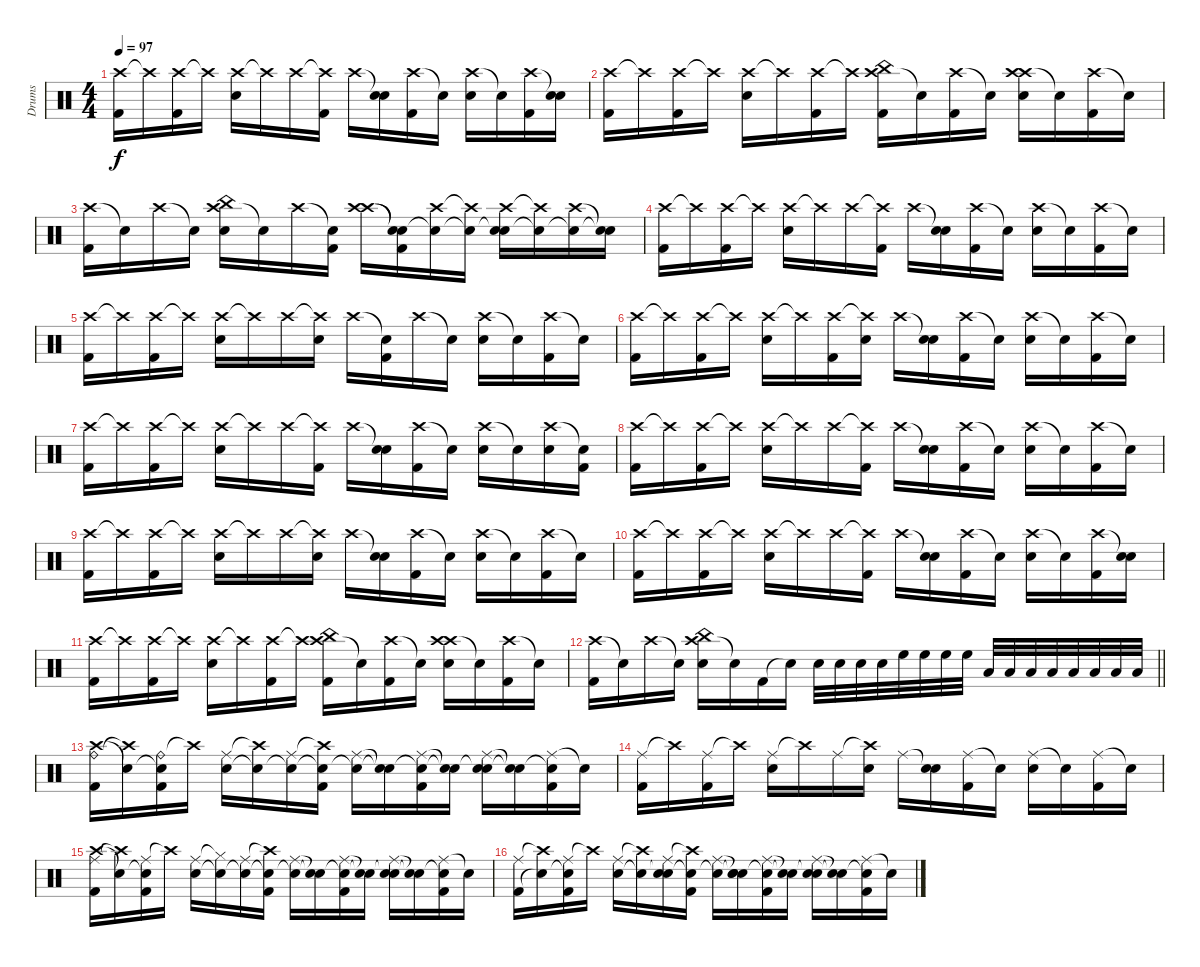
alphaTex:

\track ("Drums" "Drums") {instrument percussion}
\staff {score}
\articulation defaults
\ts (4 4)
\tempo 97
\clef neutral
\ks aminor
("Crash high (hit)" "Kick (hit) 2").16{dy f} "Crash high (hit)"{t}.16 ("Crash high (hit)" "Kick (hit) 2").16 "Crash high (hit)"{t}.16 ("Crash high (hit)" "Snare (hit) 2").16 "Crash high (hit)"{t}.16 "Crash high (hit)".16 ("Crash high (hit)"{t} "Kick (hit) 2").16 "Crash high (hit)".16 ("Snare (hit)"{t} "Snare (hit) 2").16 ("Crash high (hit)" "Kick (hit) 2").16 "Snare (hit)"{t}.16 ("Crash high (hit)" "Snare (hit) 2").16 "Snare (hit)"{t}.16 ("Crash high (hit)" "Kick (hit) 2").16 ("Snare (hit)"{t} "Snare (hit) 2").16 |
("Crash high (hit)" "Kick (hit) 2").16 "Crash high (hit)"{t}.16 ("Crash high (hit)" "Kick (hit) 2").16 "Crash high (hit)"{t}.16 ("Crash high (hit)" "Snare (hit) 2").16 "Crash high (hit)"{t}.16 ("Crash high (hit)" "Kick (hit) 2").16 "Crash high (hit)"{t}.16 ("Crash high (hit)" "China (hit)" "Kick (hit) 2").16 "Snare (hit)"{t}.16 ("Crash high (hit)" "Kick (hit) 2").16 "Snare (hit)"{t}.16 ("Crash high (hit)" "Crash high (hit)" "Snare (hit) 2").16 "Snare (hit)"{t}.16 ("Crash high (hit)" "Kick (hit) 2").16 "Snare (hit)"{t}.16 |
("Crash high (hit)" "Kick (hit) 2").16 "Snare (hit)"{t}.16 "Crash high (hit)".16 "Snare (hit)"{t}.16 ("Crash high (hit)" "China (hit)" "Snare (hit) 2").16 "Snare (hit)"{t}.16 "Crash high (hit)".16 ("Snare (hit)"{t} "Kick (hit) 2").16 ("Crash high (hit)" "Crash high (hit)").16 ("Snare (hit)"{t} "Snare (hit)"{t} "Kick (hit) 2").16 ("Crash high (hit)" "Snare (hit)"{t}).16 ("Crash high (hit)"{t} "Snare (hit)"{t}).16 ("Crash high (hit)" "Snare (hit)"{t} "Snare (hit) 2").16 ("Crash high (hit)"{t} "Snare (hit)"{t}).16 ("Crash high (hit)" "Snare (hit)"{t}).16 ("Snare (hit)"{t} "Snare (hit)"{t}).16 |
("Crash high (hit)" "Kick (hit) 2").16 "Crash high (hit)"{t}.16 ("Crash high (hit)" "Kick (hit) 2").16 "Crash high (hit)"{t}.16 ("Crash high (hit)" "Snare (hit) 2").16 "Crash high (hit)"{t}.16 "Crash high (hit)".16 ("Crash high (hit)"{t} "Kick (hit) 2").16 "Crash high (hit)".16 ("Snare (hit)"{t} "Snare (hit) 2").16 ("Crash high (hit)" "Kick (hit) 2").16 "Snare (hit)"{t}.16 ("Crash high (hit)" "Snare (hit) 2").16 "Snare (hit)"{t}.16 ("Crash high (hit)" "Kick (hit) 2").16 "Snare (hit)"{t}.16 |
("Crash high (hit)" "Kick (hit) 2").16 "Crash high (hit)"{t}.16 ("Crash high (hit)" "Kick (hit) 2").16 "Crash high (hit)"{t}.16 ("Crash high (hit)" "Snare (hit) 2").16 "Crash high (hit)"{t}.16 "Crash high (hit)".16 ("Crash high (hit)"{t} "Snare (hit) 2").16 "Crash high (hit)".16 ("Snare (hit)"{t} "Kick (hit) 2").16 "Crash high (hit)".16 "Snare (hit)"{t}.16 ("Crash high (hit)" "Snare (hit) 2").16 "Snare (hit)"{t}.16 ("Crash high (hit)" "Kick (hit) 2").16 "Snare (hit)"{t}.16 |
("Crash high (hit)" "Kick (hit) 2").16 "Crash high (hit)"{t}.16 ("Crash high (hit)" "Kick (hit) 2").16 "Crash high (hit)"{t}.16 ("Crash high (hit)" "Snare (hit) 2").16 "Crash high (hit)"{t}.16 ("Crash high (hit)" "Kick (hit) 2").16 ("Crash high (hit)"{t} "Snare (hit) 2").16 "Crash high (hit)".16 ("Snare (hit)"{t} "Snare (hit) 2").16 ("Crash high (hit)" "Kick (hit) 2").16 "Snare (hit)"{t}.16 ("Crash high (hit)" "Snare (hit) 2").16 "Snare (hit)"{t}.16 ("Crash high (hit)" "Kick (hit) 2").16 "Snare (hit)"{t}.16 |
("Crash high (hit)" "Kick (hit) 2").16 "Crash high (hit)"{t}.16 ("Crash high (hit)" "Kick (hit) 2").16 "Crash high (hit)"{t}.16 ("Crash high (hit)" "Snare (hit) 2").16 "Crash high (hit)"{t}.16 "Crash high (hit)".16 ("Crash high (hit)"{t} "Kick (hit) 2").16 "Crash high (hit)".16 ("Snare (hit)"{t} "Snare (hit) 2").16 ("Crash high (hit)" "Kick (hit) 2").16 "Snare (hit)"{t}.16 ("Crash high (hit)" "Snare (hit) 2").16 "Snare (hit)"{t}.16 ("Crash high (hit)" "Snare (hit) 2").16 ("Snare (hit)"{t} "Kick (hit) 2").16 |
("Crash high (hit)" "Kick (hit) 2").16 "Crash high (hit)"{t}.16 ("Crash high (hit)" "Kick (hit) 2").16 "Crash high (hit)"{t}.16 ("Crash high (hit)" "Snare (hit) 2").16 "Crash high (hit)"{t}.16 "Crash high (hit)".16 ("Crash high (hit)"{t} "Kick (hit) 2").16 "Crash high (hit)".16 ("Snare (hit)"{t} "Snare (hit) 2").16 ("Crash high (hit)" "Kick (hit) 2").16 "Snare (hit)"{t}.16 ("Crash high (hit)" "Snare (hit) 2").16 "Snare (hit)"{t}.16 ("Crash high (hit)" "Kick (hit) 2").16 "Snare (hit)"{t}.16 |
("Crash high (hit)" "Kick (hit) 2").16 "Crash high (hit)"{t}.16 ("Crash high (hit)" "Kick (hit) 2").16 "Crash high (hit)"{t}.16 ("Crash high (hit)" "Snare (hit) 2").16 "Crash high (hit)"{t}.16 "Crash high (hit)".16 ("Crash high (hit)"{t} "Snare (hit) 2").16 "Crash high (hit)".16 ("Snare (hit)"{t} "Snare (hit) 2").16 ("Crash high (hit)" "Kick (hit) 2").16 "Snare (hit)"{t}.16 ("Crash high (hit)" "Snare (hit) 2").16 "Snare (hit)"{t}.16 ("Crash high (hit)" "Kick (hit) 2").16 "Snare (hit)"{t}.16 |
("Crash high (hit)" "Kick (hit) 2").16 "Crash high (hit)"{t}.16 ("Crash high (hit)" "Kick (hit) 2").16 "Crash high (hit)"{t}.16 ("Crash high (hit)" "Snare (hit) 2").16 "Crash high (hit)"{t}.16 "Crash high (hit)".16 ("Crash high (hit)"{t} "Kick (hit) 2").16 "Crash high (hit)".16 ("Snare (hit)"{t} "Snare (hit) 2").16 ("Crash high (hit)" "Kick (hit) 2").16 "Snare (hit)"{t}.16 ("Crash high (hit)" "Snare (hit) 2").16 "Snare (hit)"{t}.16 ("Crash high (hit)" "Kick (hit) 2").16 ("Snare (hit)"{t} "Snare (hit) 2").16 |
("Crash high (hit)" "Kick (hit) 2").16 "Crash high (hit)"{t}.16 ("Crash high (hit)" "Kick (hit) 2").16 "Crash high (hit)"{t}.16 ("Crash high (hit)" "Snare (hit) 2").16 "Crash high (hit)"{t}.16 ("Crash high (hit)" "Kick (hit) 2").16 "Crash high (hit)"{t}.16 ("Crash high (hit)" "China (hit)" "Kick (hit) 2").16 "Snare (hit)"{t}.16 ("Crash high (hit)" "Kick (hit) 2").16 "Snare (hit)"{t}.16 ("Crash high (hit)" "Crash high (hit)" "Snare (hit) 2").16 "Snare (hit)"{t}.16 ("Crash high (hit)" "Kick (hit) 2").16 "Snare (hit)"{t}.16 |
\barLineRight lightlight
("Crash high (hit)" "Kick (hit) 2").16 "Snare (hit)"{t}.16 "Crash high (hit)".16 "Snare (hit)"{t}.16 ("Crash high (hit)" "China (hit)" "Snare (hit) 2").16 "Snare (hit)"{t}.16 "Kick (hit) 2".16 "Snare (hit)"{t}.16 "Snare (hit) 2".32 "Snare (hit) 2".32 "Snare (hit) 2".32 "Snare (hit) 2".32 "High Floor Tom (hit)".32 "High Floor Tom (hit)".32 "High Floor Tom (hit)".32 "High Floor Tom (hit)".32 "Low Tom (hit)".32 "Low Tom (hit)".32 "Low Tom (hit)".32 "Low Tom (hit)".32 "Low Floor Tom (hit)".32 "Low Floor Tom (hit)".32 "Low Floor Tom (hit)".32 "Low Floor Tom (hit)".32 |
("Ride (bell)" "Crash high (hit)" "Kick (hit) 2").16 ("Crash high (hit)"{t} "Snare (hit)"{t}).16 ("Ride (bell)" "Snare (hit)"{t} "Kick (hit) 2").16 "Crash high (hit)"{t}.16 ("Ride (middle)" "Snare (hit) 2").16 ("Crash high (hit)"{t} "Snare (hit)"{t}).16 ("Ride (middle)" "Snare (hit)"{t}).16 ("Crash high (hit)"{t} "Snare (hit)"{t} "Kick (hit) 2").16 ("Ride (middle)" "Snare (hit)"{t}).16 ("Snare (hit)"{t} "Snare (hit)"{t}).16 ("Ride (middle)" "Snare (hit)"{t} "Kick (hit) 2").16 ("Snare (hit)"{t} "Snare (hit)"{t}).16 ("Ride (middle)" "Snare (hit)"{t} "Snare (hit) 2").16 ("Snare (hit)"{t} "Snare (hit)"{t}).16 ("Ride (middle)" "Snare (hit)"{t} "Kick (hit) 2").16 "Snare (hit)"{t}.16 |
("Ride (middle)" "Kick (hit) 2").16 "Crash high (hit)"{t}.16 ("Ride (middle)" "Kick (hit) 2").16 "Crash high (hit)"{t}.16 ("Ride (middle)" "Snare (hit) 2").16 "Crash high (hit)"{t}.16 "Ride (middle)".16 ("Crash high (hit)"{t} "Snare (hit) 2").16 "Ride (middle)".16 ("Snare (hit)"{t} "Snare (hit) 2").16 ("Ride (middle)" "Kick (hit) 2").16 "Snare (hit)"{t}.16 ("Ride (middle)" "Snare (hit) 2").16 "Snare (hit)"{t}.16 ("Ride (middle)" "Kick (hit) 2").16 "Snare (hit)"{t}.16 |
("Ride (middle)" "Crash high (hit)" "Kick (hit) 2").16 ("Crash high (hit)"{t} "Snare (hit)"{t}).16 ("Ride (middle)" "Snare (hit)"{t} "Kick (hit) 2").16 "Crash high (hit)"{t}.16 ("Ride (middle)" "Snare (hit) 2").16 ("Hi-Hat (closed)"{t} "Snare (hit)"{t}).16 ("Ride (middle)" "Snare (hit)"{t}).16 ("Crash high (hit)"{t} "Snare (hit)"{t} "Kick (hit) 2").16 ("Ride (middle)" "Snare (hit)"{t}).16 ("Snare (hit)"{t} "Snare (hit)"{t}).16 ("Ride (middle)" "Snare (hit)"{t} "Kick (hit) 2").16 ("Snare (hit)"{t} "Snare (hit)"{t}).16 ("Ride (middle)" "Snare (hit)"{t} "Snare (hit) 2").16 ("Snare (hit)"{t} "Snare (hit)"{t}).16 ("Ride (middle)" "Snare (hit)"{t} "Kick (hit) 2").16 "Snare (hit)"{t}.16 |
("Ride (middle)" "Kick (hit) 2").16 ("Crash high (hit)"{t} "Snare (hit)"{t}).16 ("Ride (middle)" "Snare (hit)"{t} "Kick (hit) 2").16 "Crash high (hit)"{t}.16 ("Ride (middle)" "Snare (hit) 2").16 ("Crash high (hit)"{t} "Snare (hit)"{t}).16 ("Ride (middle)" "Snare (hit)"{t} "Snare (hit) 2").16 ("Crash high (hit)"{t} "Snare (hit)"{t} "Kick (hit) 2").16 ("Ride (middle)" "Snare (hit)"{t}).16 ("Snare (hit)"{t} "Snare (hit)"{t} "Snare (hit) 2").16 ("Ride (middle)" "Snare (hit)"{t} "Kick (hit) 2").16 ("Snare (hit)"{t} "Snare (hit)"{t}).16 ("Ride (middle)" "Snare (hit)"{t} "Snare (hit) 2").16 ("Snare (hit)"{t} "Snare (hit)"{t}).16 ("Ride (middle)" "Snare (hit)"{t} "Kick (hit) 2").16 "Snare (hit)"{t}.16
